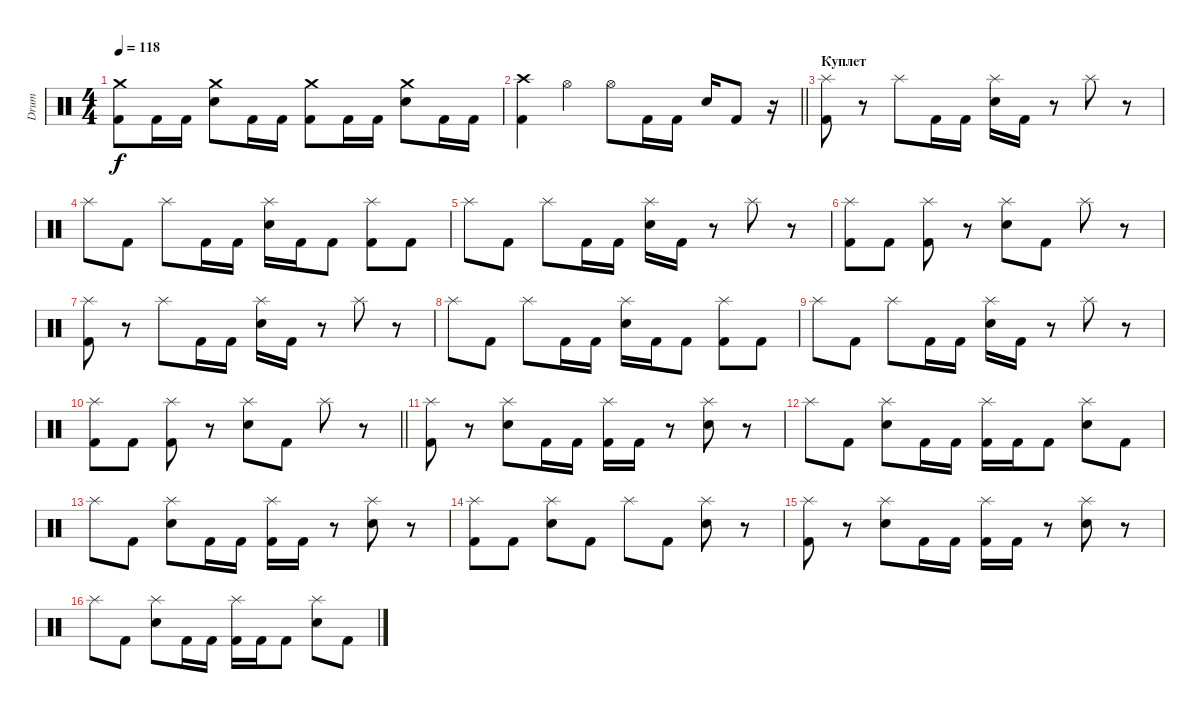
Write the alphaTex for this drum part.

\track ("Drum" "Drum") {instrument percussion}
\staff {score}
\articulation defaults
\ts (4 4)
\tempo 118
\clef neutral
\ks c
("Crash medium (hit)" "Kick (hit) 2").8{dy f} "Kick (hit) 2".16 "Kick (hit) 2".16 ("Crash medium (hit)" "Snare (hit) 2").8 "Kick (hit) 2".16 "Kick (hit) 2".16 ("Crash medium (hit)" "Kick (hit) 2").8 "Kick (hit) 2".16 "Kick (hit) 2".16 ("Crash medium (hit)" "Snare (hit) 2").8 "Kick (hit) 2".16 "Kick (hit) 2".16 |
\barLineRight lightlight
("Crash high (hit)" "Kick (hit) 2").4 "Hi-Hat (open)".4 "Hi-Hat (open)".8 "Kick (hit) 2".16 "Kick (hit) 2".16 "Snare (hit) 2".16 "Kick (hit) 2".8 r.16 |
\section ("" "Куплет")
("Splash (hit)" "Kick (hit) 2").8 r.8 "Splash (hit)".8 "Kick (hit) 2".16 "Kick (hit) 2".16 ("Splash (hit)" "Snare (hit) 2").16 "Kick (hit) 2".16 r.8 "Splash (hit)".8 r.8 |
"Splash (hit)".8 "Kick (hit) 2".8 "Splash (hit)".8 "Kick (hit) 2".16 "Kick (hit) 2".16 ("Splash (hit)" "Snare (hit) 2").16 "Kick (hit) 2".16 "Kick (hit) 2".8 ("Splash (hit)" "Kick (hit) 2").8 "Kick (hit) 2".8 |
"Splash (hit)".8 "Kick (hit) 2".8 "Splash (hit)".8 "Kick (hit) 2".16 "Kick (hit) 2".16 ("Splash (hit)" "Snare (hit) 2").16 "Kick (hit) 2".16 r.8 "Splash (hit)".8 r.8 |
("Splash (hit)" "Kick (hit) 2").8 "Kick (hit) 2".8 ("Splash (hit)" "Kick (hit) 2").8 r.8 ("Splash (hit)" "Snare (hit) 2").8 "Kick (hit) 2".8 "Splash (hit)".8 r.8 |
("Splash (hit)" "Kick (hit) 2").8 r.8 "Splash (hit)".8 "Kick (hit) 2".16 "Kick (hit) 2".16 ("Splash (hit)" "Snare (hit) 2").16 "Kick (hit) 2".16 r.8 "Splash (hit)".8 r.8 |
"Splash (hit)".8 "Kick (hit) 2".8 "Splash (hit)".8 "Kick (hit) 2".16 "Kick (hit) 2".16 ("Splash (hit)" "Snare (hit) 2").16 "Kick (hit) 2".16 "Kick (hit) 2".8 ("Splash (hit)" "Kick (hit) 2").8 "Kick (hit) 2".8 |
"Splash (hit)".8 "Kick (hit) 2".8 "Splash (hit)".8 "Kick (hit) 2".16 "Kick (hit) 2".16 ("Splash (hit)" "Snare (hit) 2").16 "Kick (hit) 2".16 r.8 "Splash (hit)".8 r.8 |
\barLineRight lightlight
("Splash (hit)" "Kick (hit) 2").8 "Kick (hit) 2".8 ("Splash (hit)" "Kick (hit) 2").8 r.8 ("Splash (hit)" "Snare (hit) 2").8 "Kick (hit) 2".8 "Splash (hit)".8 r.8 |
\section ("" "")
("Splash (hit)" "Kick (hit) 2").8 r.8 ("Splash (hit)" "Snare (hit) 2").8 "Kick (hit) 2".16 "Kick (hit) 2".16 ("Splash (hit)" "Kick (hit) 2").16 "Kick (hit) 2".16 r.8 ("Splash (hit)" "Snare (hit) 2").8 r.8 |
"Splash (hit)".8 "Kick (hit) 2".8 ("Splash (hit)" "Snare (hit) 2").8 "Kick (hit) 2".16 "Kick (hit) 2".16 ("Splash (hit)" "Kick (hit) 2").16 "Kick (hit) 2".16 "Kick (hit) 2".8 ("Splash (hit)" "Snare (hit) 2").8 "Kick (hit) 2".8 |
"Splash (hit)".8 "Kick (hit) 2".8 ("Splash (hit)" "Snare (hit) 2").8 "Kick (hit) 2".16 "Kick (hit) 2".16 ("Splash (hit)" "Kick (hit) 2").16 "Kick (hit) 2".16 r.8 ("Splash (hit)" "Snare (hit) 2").8 r.8 |
("Splash (hit)" "Kick (hit) 2").8 "Kick (hit) 2".8 ("Splash (hit)" "Snare (hit) 2").8 "Kick (hit) 2".8 "Splash (hit)".8 "Kick (hit) 2".8 ("Splash (hit)" "Snare (hit) 2").8 r.8 |
("Splash (hit)" "Kick (hit) 2").8 r.8 ("Splash (hit)" "Snare (hit) 2").8 "Kick (hit) 2".16 "Kick (hit) 2".16 ("Splash (hit)" "Kick (hit) 2").16 "Kick (hit) 2".16 r.8 ("Splash (hit)" "Snare (hit) 2").8 r.8 |
"Splash (hit)".8 "Kick (hit) 2".8 ("Splash (hit)" "Snare (hit) 2").8 "Kick (hit) 2".16 "Kick (hit) 2".16 ("Splash (hit)" "Kick (hit) 2").16 "Kick (hit) 2".16 "Kick (hit) 2".8 ("Splash (hit)" "Snare (hit) 2").8 "Kick (hit) 2".8
